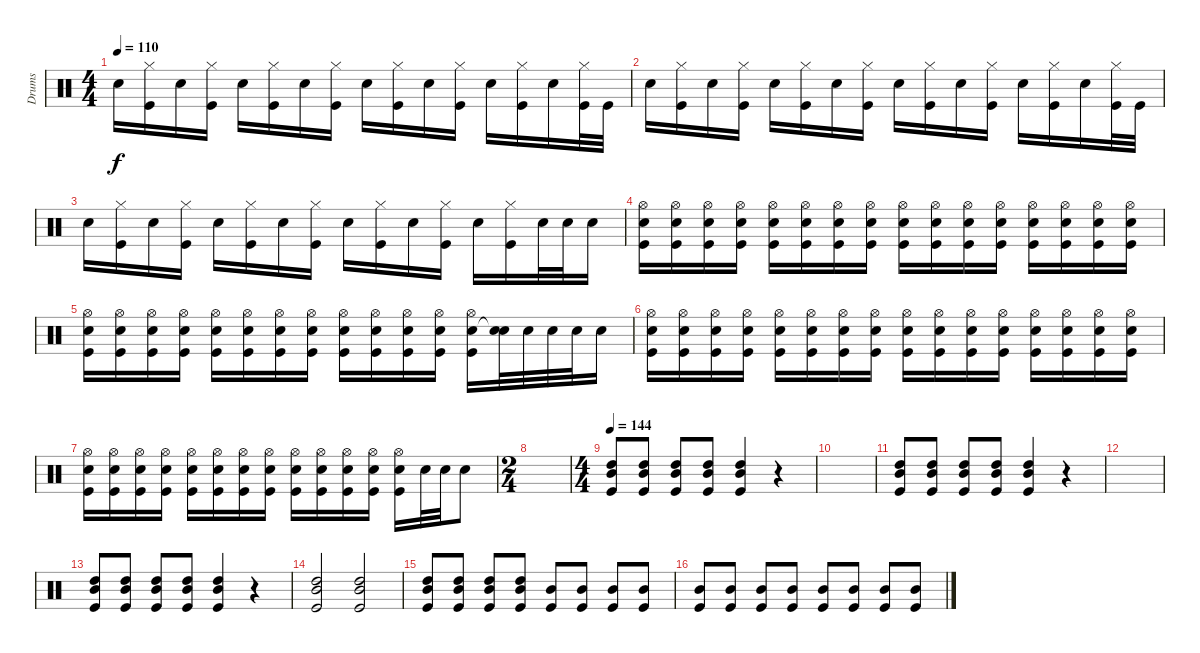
\track ("Drums" "Drums") {instrument percussion}
\staff {score}
\articulation defaults
\ts (4 4)
\tempo 110
\clef neutral
\ks c "Snare (hit) 2".16{dy f}
("Hi-Hat (closed)" "Kick (hit)").16 "Snare (hit) 2".16 ("Hi-Hat (closed)" "Kick (hit)").16 "Snare (hit) 2".16 ("Hi-Hat (closed)" "Kick (hit)").16 "Snare (hit) 2".16 ("Hi-Hat (closed)" "Kick (hit)").16 "Snare (hit) 2".16 ("Hi-Hat (closed)" "Kick (hit)").16 "Snare (hit) 2".16 ("Hi-Hat (closed)" "Kick (hit)").16 "Snare (hit) 2".16 ("Hi-Hat (closed)" "Kick (hit)").16 "Snare (hit) 2".16 ("Hi-Hat (closed)" "Kick (hit)").32 "Kick (hit)".32 |
"Snare (hit) 2".16 ("Hi-Hat (closed)" "Kick (hit)").16 "Snare (hit) 2".16 ("Hi-Hat (closed)" "Kick (hit)").16 "Snare (hit) 2".16 ("Hi-Hat (closed)" "Kick (hit)").16 "Snare (hit) 2".16 ("Hi-Hat (closed)" "Kick (hit)").16 "Snare (hit) 2".16 ("Hi-Hat (closed)" "Kick (hit)").16 "Snare (hit) 2".16 ("Hi-Hat (closed)" "Kick (hit)").16 "Snare (hit) 2".16 ("Hi-Hat (closed)" "Kick (hit)").16 "Snare (hit) 2".16 ("Hi-Hat (closed)" "Kick (hit)").32 "Kick (hit)".32 |
"Snare (hit) 2".16 ("Hi-Hat (closed)" "Kick (hit)").16 "Snare (hit) 2".16 ("Hi-Hat (closed)" "Kick (hit)").16 "Snare (hit) 2".16 ("Hi-Hat (closed)" "Kick (hit)").16 "Snare (hit) 2".16 ("Hi-Hat (closed)" "Kick (hit)").16 "Snare (hit) 2".16 ("Hi-Hat (closed)" "Kick (hit)").16 "Snare (hit) 2".16 ("Hi-Hat (closed)" "Kick (hit)").16 "Snare (hit) 2".16 ("Hi-Hat (closed)" "Kick (hit)").16 "Snare (hit) 2".32 "Snare (hit) 2".32 "Snare (hit) 2".16 |
("Hi-Hat (open)" "Snare (hit) 2" "Kick (hit)").16 ("Hi-Hat (open)" "Snare (hit) 2" "Kick (hit)").16 ("Hi-Hat (open)" "Snare (hit) 2" "Kick (hit)").16 ("Hi-Hat (open)" "Snare (hit) 2" "Kick (hit)").16 ("Hi-Hat (open)" "Snare (hit) 2" "Kick (hit)").16 ("Hi-Hat (open)" "Snare (hit) 2" "Kick (hit)").16 ("Hi-Hat (open)" "Snare (hit) 2" "Kick (hit)").16 ("Hi-Hat (open)" "Snare (hit) 2" "Kick (hit)").16 ("Hi-Hat (open)" "Snare (hit) 2" "Kick (hit)").16 ("Hi-Hat (open)" "Snare (hit) 2" "Kick (hit)").16 ("Hi-Hat (open)" "Snare (hit) 2" "Kick (hit)").16 ("Hi-Hat (open)" "Snare (hit) 2" "Kick (hit)").16 ("Hi-Hat (open)" "Snare (hit) 2" "Kick (hit)").16 ("Hi-Hat (open)" "Snare (hit) 2" "Kick (hit)").16 ("Hi-Hat (open)" "Snare (hit) 2" "Kick (hit)").16 ("Hi-Hat (open)" "Snare (hit) 2" "Kick (hit)").16 |
("Hi-Hat (open)" "Snare (hit) 2" "Kick (hit)").16 ("Hi-Hat (open)" "Snare (hit) 2" "Kick (hit)").16 ("Hi-Hat (open)" "Snare (hit) 2" "Kick (hit)").16 ("Hi-Hat (open)" "Snare (hit) 2" "Kick (hit)").16 ("Hi-Hat (open)" "Snare (hit) 2" "Kick (hit)").16 ("Hi-Hat (open)" "Snare (hit) 2" "Kick (hit)").16 ("Hi-Hat (open)" "Snare (hit) 2" "Kick (hit)").16 ("Hi-Hat (open)" "Snare (hit) 2" "Kick (hit)").16 ("Hi-Hat (open)" "Snare (hit) 2" "Kick (hit)").16 ("Hi-Hat (open)" "Snare (hit) 2" "Kick (hit)").16 ("Hi-Hat (open)" "Snare (hit) 2" "Kick (hit)").16 ("Hi-Hat (open)" "Snare (hit) 2" "Kick (hit)").16 ("Hi-Hat (open)" "Snare (hit) 2" "Kick (hit)").16 ("Snare (hit) 2" "Snare (hit)"{t}).32 "Snare (hit) 2".32 "Snare (hit) 2".32 "Snare (hit) 2".32 "Snare (hit) 2".16 |
("Hi-Hat (open)" "Snare (hit) 2" "Kick (hit)").16 ("Hi-Hat (open)" "Snare (hit) 2" "Kick (hit)").16 ("Hi-Hat (open)" "Snare (hit) 2" "Kick (hit)").16 ("Hi-Hat (open)" "Snare (hit) 2" "Kick (hit)").16 ("Hi-Hat (open)" "Snare (hit) 2" "Kick (hit)").16 ("Hi-Hat (open)" "Snare (hit) 2" "Kick (hit)").16 ("Hi-Hat (open)" "Snare (hit) 2" "Kick (hit)").16 ("Hi-Hat (open)" "Snare (hit) 2" "Kick (hit)").16 ("Hi-Hat (open)" "Snare (hit) 2" "Kick (hit)").16 ("Hi-Hat (open)" "Snare (hit) 2" "Kick (hit)").16 ("Hi-Hat (open)" "Snare (hit) 2" "Kick (hit)").16 ("Hi-Hat (open)" "Snare (hit) 2" "Kick (hit)").16 ("Hi-Hat (open)" "Snare (hit) 2" "Kick (hit)").16 ("Hi-Hat (open)" "Snare (hit) 2" "Kick (hit)").16 ("Hi-Hat (open)" "Snare (hit) 2" "Kick (hit)").16 ("Hi-Hat (open)" "Snare (hit) 2" "Kick (hit)").16 |
("Hi-Hat (open)" "Snare (hit) 2" "Kick (hit)").16 ("Hi-Hat (open)" "Snare (hit) 2" "Kick (hit)").16 ("Hi-Hat (open)" "Snare (hit) 2" "Kick (hit)").16 ("Hi-Hat (open)" "Snare (hit) 2" "Kick (hit)").16 ("Hi-Hat (open)" "Snare (hit) 2" "Kick (hit)").16 ("Hi-Hat (open)" "Snare (hit) 2" "Kick (hit)").16 ("Hi-Hat (open)" "Snare (hit) 2" "Kick (hit)").16 ("Hi-Hat (open)" "Snare (hit) 2" "Kick (hit)").16 ("Hi-Hat (open)" "Snare (hit) 2" "Kick (hit)").16 ("Hi-Hat (open)" "Snare (hit) 2" "Kick (hit)").16 ("Hi-Hat (open)" "Snare (hit) 2" "Kick (hit)").16 ("Hi-Hat (open)" "Snare (hit) 2" "Kick (hit)").16 ("Hi-Hat (open)" "Snare (hit) 2" "Kick (hit)").16 "Snare (hit) 2".32 "Snare (hit) 2".32 "Snare (hit) 2".8 |
\ts (2 4)
|
\ts (4 4)
\tempo 144
("High Tom (hit)" "Mid Tom (hit)" "Kick (hit)").8 ("High Tom (hit)" "Mid Tom (hit)" "Kick (hit)").8 ("High Tom (hit)" "Mid Tom (hit)" "Kick (hit)").8 ("High Tom (hit)" "Mid Tom (hit)" "Kick (hit)").8 ("High Tom (hit)" "Mid Tom (hit)" "Kick (hit)").4 r.4 |
|
("High Tom (hit)" "Mid Tom (hit)" "Kick (hit)").8 ("High Tom (hit)" "Mid Tom (hit)" "Kick (hit)").8 ("High Tom (hit)" "Mid Tom (hit)" "Kick (hit)").8 ("High Tom (hit)" "Mid Tom (hit)" "Kick (hit)").8 ("High Tom (hit)" "Mid Tom (hit)" "Kick (hit)").4 r.4 |
|
("High Tom (hit)" "Mid Tom (hit)" "Kick (hit)").8 ("High Tom (hit)" "Mid Tom (hit)" "Kick (hit)").8 ("High Tom (hit)" "Mid Tom (hit)" "Kick (hit)").8 ("High Tom (hit)" "Mid Tom (hit)" "Kick (hit)").8 ("High Tom (hit)" "Mid Tom (hit)" "Kick (hit)").4 r.4 |
("High Tom (hit)" "Mid Tom (hit)" "Kick (hit)").2 ("High Tom (hit)" "Mid Tom (hit)" "Kick (hit)").2 |
("High Tom (hit)" "Mid Tom (hit)" "Kick (hit)").8 ("High Tom (hit)" "Mid Tom (hit)" "Kick (hit)").8 ("High Tom (hit)" "Mid Tom (hit)" "Kick (hit)").8 ("High Tom (hit)" "Mid Tom (hit)" "Kick (hit)").8 ("Mid Tom (hit)" "Kick (hit)").8 ("Mid Tom (hit)" "Kick (hit)").8 ("Mid Tom (hit)" "Kick (hit)").8 ("Mid Tom (hit)" "Kick (hit)").8 |
("Mid Tom (hit)" "Kick (hit)").8 ("Mid Tom (hit)" "Kick (hit)").8 ("Mid Tom (hit)" "Kick (hit)").8 ("Mid Tom (hit)" "Kick (hit)").8 ("Mid Tom (hit)" "Kick (hit)").8 ("Mid Tom (hit)" "Kick (hit)").8 ("Mid Tom (hit)" "Kick (hit)").8 ("Mid Tom (hit)" "Kick (hit)").8
